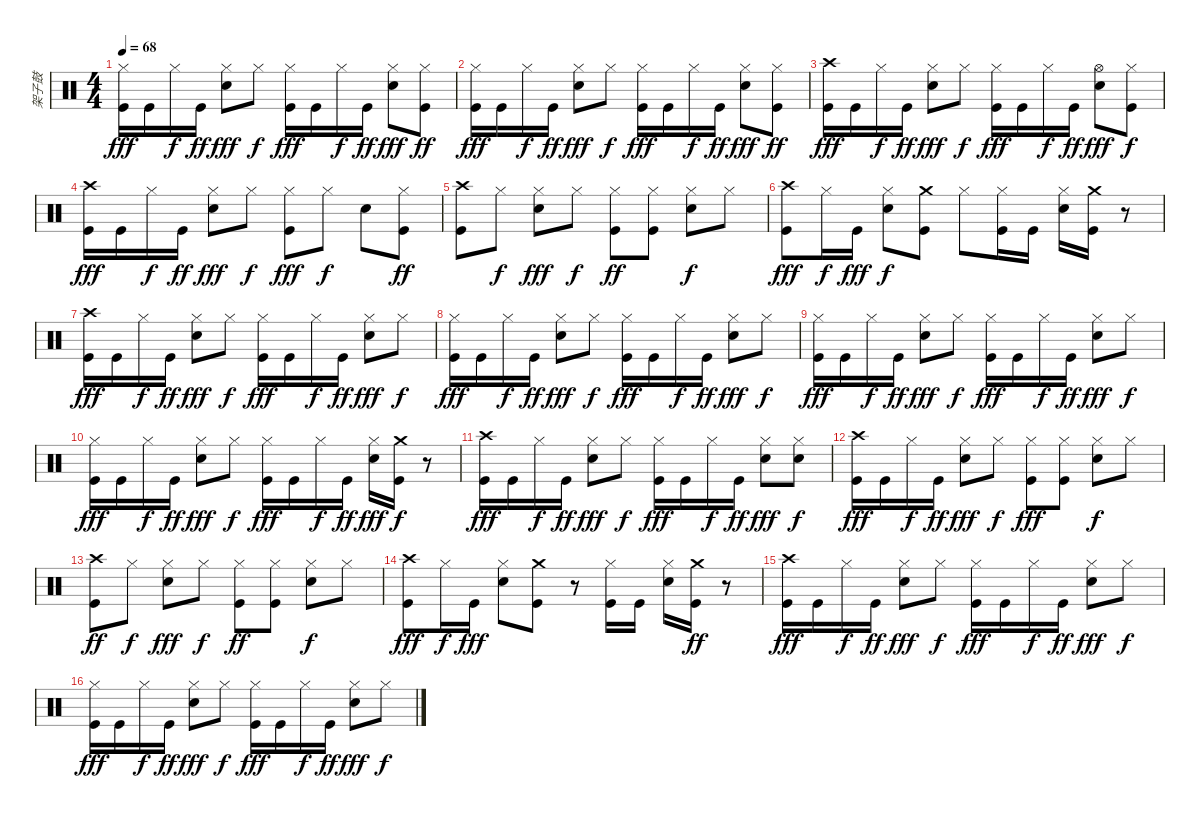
\track ("架子鼓" "架子鼓") {instrument percussion}
\staff {score}
\articulation defaults
\ts (4 4)
\tempo 68
\clef neutral
\ks c
("Hi-Hat (closed)" "Kick (hit)").16{dy fff} "Kick (hit)".16 "Hi-Hat (closed)".16{dy f} "Kick (hit)".16{dy ff} ("Hi-Hat (closed)" "Snare (hit) 2").8{dy fff} "Hi-Hat (closed)".8{dy f} ("Hi-Hat (closed)" "Kick (hit)").16{dy fff} "Kick (hit)".16 "Hi-Hat (closed)".16{dy f} "Kick (hit)".16{dy ff} ("Hi-Hat (closed)" "Snare (hit) 2").8{dy fff} ("Hi-Hat (closed)" "Kick (hit)").8{dy ff} |
("Hi-Hat (closed)" "Kick (hit)").16{dy fff} "Kick (hit)".16 "Hi-Hat (closed)".16{dy f} "Kick (hit)".16{dy ff} ("Hi-Hat (closed)" "Snare (hit) 2").8{dy fff} "Hi-Hat (closed)".8{dy f} ("Hi-Hat (closed)" "Kick (hit)").16{dy fff} "Kick (hit)".16 "Hi-Hat (closed)".16{dy f} "Kick (hit)".16{dy ff} ("Hi-Hat (closed)" "Snare (hit) 2").8{dy fff} ("Hi-Hat (closed)" "Kick (hit)").8{dy ff} |
("Crash high (hit)" "Kick (hit)").16{dy fff} "Kick (hit)".16 "Hi-Hat (closed)".16{dy f} "Kick (hit)".16{dy ff} ("Hi-Hat (closed)" "Snare (hit) 2").8{dy fff} "Hi-Hat (closed)".8{dy f} ("Hi-Hat (closed)" "Kick (hit)").16{dy fff} "Kick (hit)".16 "Hi-Hat (closed)".16{dy f} "Kick (hit)".16{dy ff} ("Hi-Hat (open)" "Snare (hit) 2").8{dy fff} ("Hi-Hat (closed)" "Kick (hit)").8{dy f} |
("Crash high (hit)" "Kick (hit)").16{dy fff} "Kick (hit)".16 "Hi-Hat (closed)".16{dy f} "Kick (hit)".16{dy ff} ("Hi-Hat (closed)" "Snare (hit) 2").8{dy fff} "Hi-Hat (closed)".8{dy f} ("Hi-Hat (closed)" "Kick (hit)").8{dy fff} "Hi-Hat (closed)".8{dy f} "Snare (hit) 2".8 ("Hi-Hat (closed)" "Kick (hit)").8{dy ff} |
("Crash high (hit)" "Kick (hit)").8 "Hi-Hat (closed)".8{dy f} ("Hi-Hat (closed)" "Snare (hit) 2").8{dy fff} "Hi-Hat (closed)".8{dy f} ("Hi-Hat (closed)" "Kick (hit)").8{dy ff} ("Hi-Hat (closed)" "Kick (hit)").8 ("Hi-Hat (closed)" "Snare (hit) 2").8{dy f} "Hi-Hat (closed)".8 |
("Crash high (hit)" "Kick (hit)").8{dy fff} "Hi-Hat (closed)".16{dy f} "Kick (hit)".16{dy fff} ("Hi-Hat (closed)" "Snare (hit) 2").8{dy f} ("Crash medium (hit)" "Kick (hit)").8 "Hi-Hat (closed)".8 ("Hi-Hat (closed)" "Kick (hit)").16 "Kick (hit)".16 ("Hi-Hat (closed)" "Snare (hit) 2").16 ("Crash medium (hit)" "Kick (hit)").16 r.8 |
("Crash high (hit)" "Kick (hit)").16{dy fff} "Kick (hit)".16 "Hi-Hat (closed)".16{dy f} "Kick (hit)".16{dy ff} ("Hi-Hat (closed)" "Snare (hit) 2").8{dy fff} "Hi-Hat (closed)".8{dy f} ("Hi-Hat (closed)" "Kick (hit)").16{dy fff} "Kick (hit)".16 "Hi-Hat (closed)".16{dy f} "Kick (hit)".16{dy ff} ("Hi-Hat (closed)" "Snare (hit) 2").8{dy fff} "Hi-Hat (closed)".8{dy f} |
("Hi-Hat (closed)" "Kick (hit)").16{dy fff} "Kick (hit)".16 "Hi-Hat (closed)".16{dy f} "Kick (hit)".16{dy ff} ("Hi-Hat (closed)" "Snare (hit) 2").8{dy fff} "Hi-Hat (closed)".8{dy f} ("Hi-Hat (closed)" "Kick (hit)").16{dy fff} "Kick (hit)".16 "Hi-Hat (closed)".16{dy f} "Kick (hit)".16{dy ff} ("Hi-Hat (closed)" "Snare (hit) 2").8{dy fff} "Hi-Hat (closed)".8{dy f} |
("Hi-Hat (closed)" "Kick (hit)").16{dy fff} "Kick (hit)".16 "Hi-Hat (closed)".16{dy f} "Kick (hit)".16{dy ff} ("Hi-Hat (closed)" "Snare (hit) 2").8{dy fff} "Hi-Hat (closed)".8{dy f} ("Hi-Hat (closed)" "Kick (hit)").16{dy fff} "Kick (hit)".16 "Hi-Hat (closed)".16{dy f} "Kick (hit)".16{dy ff} ("Hi-Hat (closed)" "Snare (hit) 2").8{dy fff} "Hi-Hat (closed)".8{dy f} |
("Hi-Hat (closed)" "Kick (hit)").16{dy fff} "Kick (hit)".16 "Hi-Hat (closed)".16{dy f} "Kick (hit)".16{dy ff} ("Hi-Hat (closed)" "Snare (hit) 2").8{dy fff} "Hi-Hat (closed)".8{dy f} ("Hi-Hat (closed)" "Kick (hit)").16{dy fff} "Kick (hit)".16 "Hi-Hat (closed)".16{dy f} "Kick (hit)".16{dy ff} ("Hi-Hat (closed)" "Snare (hit) 2").16{dy fff} ("Crash medium (hit)" "Kick (hit)").16{dy f} r.8 |
("Crash high (hit)" "Kick (hit)").16{dy fff} "Kick (hit)".16 "Hi-Hat (closed)".16{dy f} "Kick (hit)".16{dy ff} ("Hi-Hat (closed)" "Snare (hit) 2").8{dy fff} "Hi-Hat (closed)".8{dy f} ("Hi-Hat (closed)" "Kick (hit)").16{dy fff} "Kick (hit)".16 "Hi-Hat (closed)".16{dy f} "Kick (hit)".16{dy ff} ("Hi-Hat (closed)" "Snare (hit) 2").8{dy fff} ("Hi-Hat (closed)" "Snare (hit) 2").8{dy f} |
("Crash high (hit)" "Kick (hit)").16{dy fff} "Kick (hit)".16 "Hi-Hat (closed)".16{dy f} "Kick (hit)".16{dy ff} ("Hi-Hat (closed)" "Snare (hit) 2").8{dy fff} "Hi-Hat (closed)".8{dy f} ("Hi-Hat (closed)" "Kick (hit)").8{dy fff} ("Hi-Hat (closed)" "Kick (hit)").8 ("Hi-Hat (closed)" "Snare (hit) 2").8{dy f} "Hi-Hat (closed)".8 |
("Crash high (hit)" "Kick (hit)").8{dy ff} "Hi-Hat (closed)".8{dy f} ("Hi-Hat (closed)" "Snare (hit) 2").8{dy fff} "Hi-Hat (closed)".8{dy f} ("Hi-Hat (closed)" "Kick (hit)").8{dy ff} ("Hi-Hat (closed)" "Kick (hit)").8 ("Hi-Hat (closed)" "Snare (hit) 2").8{dy f} "Hi-Hat (closed)".8 |
("Crash high (hit)" "Kick (hit)").8{dy fff} "Hi-Hat (closed)".16{dy f} "Kick (hit)".16{dy fff} ("Hi-Hat (closed)" "Snare (hit) 2").8 ("Crash medium (hit)" "Kick (hit)").8 r.8 ("Hi-Hat (closed)" "Kick (hit)").16 "Kick (hit)".16 ("Hi-Hat (closed)" "Snare (hit) 2").16 ("Crash medium (hit)" "Kick (hit)").16{dy ff} r.8 |
("Crash high (hit)" "Kick (hit)").16{dy fff} "Kick (hit)".16 "Hi-Hat (closed)".16{dy f} "Kick (hit)".16{dy ff} ("Hi-Hat (closed)" "Snare (hit) 2").8{dy fff} "Hi-Hat (closed)".8{dy f} ("Hi-Hat (closed)" "Kick (hit)").16{dy fff} "Kick (hit)".16 "Hi-Hat (closed)".16{dy f} "Kick (hit)".16{dy ff} ("Hi-Hat (closed)" "Snare (hit) 2").8{dy fff} "Hi-Hat (closed)".8{dy f} |
("Hi-Hat (closed)" "Kick (hit)").16{dy fff} "Kick (hit)".16 "Hi-Hat (closed)".16{dy f} "Kick (hit)".16{dy ff} ("Hi-Hat (closed)" "Snare (hit) 2").8{dy fff} "Hi-Hat (closed)".8{dy f} ("Hi-Hat (closed)" "Kick (hit)").16{dy fff} "Kick (hit)".16 "Hi-Hat (closed)".16{dy f} "Kick (hit)".16{dy ff} ("Hi-Hat (closed)" "Snare (hit) 2").8{dy fff} "Hi-Hat (closed)".8{dy f}
